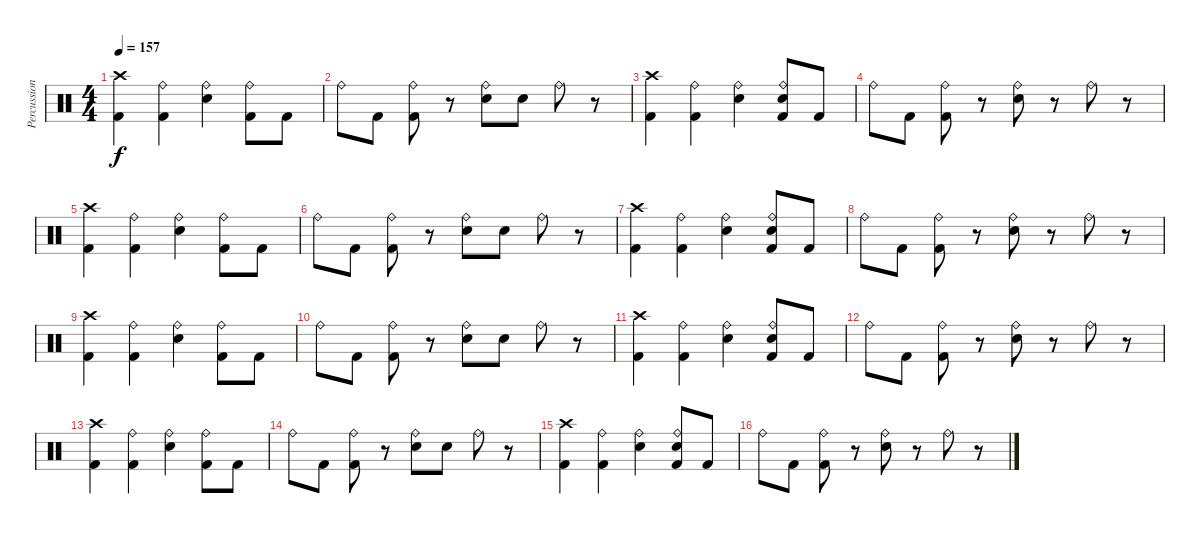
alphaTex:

\track ("Percussion" "Percussion") {instrument percussion}
\staff {score}
\articulation defaults
\ts (4 4)
\tempo 157
\clef neutral
\ks c
("Crash high (hit)" "Kick (hit) 2").4{dy f} ("Ride (bell)" "Kick (hit) 2").4 ("Ride (bell)" "Electric Snare (hit)").4 ("Ride (bell)" "Kick (hit) 2").8 "Kick (hit) 2".8 |
"Ride (bell)".8 "Kick (hit) 2".8 ("Ride (bell)" "Kick (hit) 2").8 r.8 ("Ride (bell)" "Electric Snare (hit)").8 "Electric Snare (hit)".8 "Ride (bell)".8 r.8 |
("Crash high (hit)" "Kick (hit) 2").4 ("Ride (bell)" "Kick (hit) 2").4 ("Ride (bell)" "Electric Snare (hit)").4 ("Ride (bell)" "Electric Snare (hit)" "Kick (hit) 2").8 "Kick (hit) 2".8 |
"Ride (bell)".8 "Kick (hit) 2".8 ("Ride (bell)" "Kick (hit) 2").8 r.8 ("Ride (bell)" "Electric Snare (hit)").8 r.8 "Ride (bell)".8 r.8 |
("Crash high (hit)" "Kick (hit) 2").4 ("Ride (bell)" "Kick (hit) 2").4 ("Ride (bell)" "Electric Snare (hit)").4 ("Ride (bell)" "Kick (hit) 2").8 "Kick (hit) 2".8 |
"Ride (bell)".8 "Kick (hit) 2".8 ("Ride (bell)" "Kick (hit) 2").8 r.8 ("Ride (bell)" "Electric Snare (hit)").8 "Electric Snare (hit)".8 "Ride (bell)".8 r.8 |
("Crash high (hit)" "Kick (hit) 2").4 ("Ride (bell)" "Kick (hit) 2").4 ("Ride (bell)" "Electric Snare (hit)").4 ("Ride (bell)" "Electric Snare (hit)" "Kick (hit) 2").8 "Kick (hit) 2".8 |
"Ride (bell)".8 "Kick (hit) 2".8 ("Ride (bell)" "Kick (hit) 2").8 r.8 ("Ride (bell)" "Electric Snare (hit)").8 r.8 "Ride (bell)".8 r.8 |
("Crash high (hit)" "Kick (hit) 2").4 ("Ride (bell)" "Kick (hit) 2").4 ("Ride (bell)" "Electric Snare (hit)").4 ("Ride (bell)" "Kick (hit) 2").8 "Kick (hit) 2".8 |
"Ride (bell)".8 "Kick (hit) 2".8 ("Ride (bell)" "Kick (hit) 2").8 r.8 ("Ride (bell)" "Electric Snare (hit)").8 "Electric Snare (hit)".8 "Ride (bell)".8 r.8 |
("Crash high (hit)" "Kick (hit) 2").4 ("Ride (bell)" "Kick (hit) 2").4 ("Ride (bell)" "Electric Snare (hit)").4 ("Ride (bell)" "Electric Snare (hit)" "Kick (hit) 2").8 "Kick (hit) 2".8 |
"Ride (bell)".8 "Kick (hit) 2".8 ("Ride (bell)" "Kick (hit) 2").8 r.8 ("Ride (bell)" "Electric Snare (hit)").8 r.8 "Ride (bell)".8 r.8 |
("Crash high (hit)" "Kick (hit) 2").4 ("Ride (bell)" "Kick (hit) 2").4 ("Ride (bell)" "Electric Snare (hit)").4 ("Ride (bell)" "Kick (hit) 2").8 "Kick (hit) 2".8 |
"Ride (bell)".8 "Kick (hit) 2".8 ("Ride (bell)" "Kick (hit) 2").8 r.8 ("Ride (bell)" "Electric Snare (hit)").8 "Electric Snare (hit)".8 "Ride (bell)".8 r.8 |
("Crash high (hit)" "Kick (hit) 2").4 ("Ride (bell)" "Kick (hit) 2").4 ("Ride (bell)" "Electric Snare (hit)").4 ("Ride (bell)" "Electric Snare (hit)" "Kick (hit) 2").8 "Kick (hit) 2".8 |
"Ride (bell)".8 "Kick (hit) 2".8 ("Ride (bell)" "Kick (hit) 2").8 r.8 ("Ride (bell)" "Electric Snare (hit)").8 r.8 "Ride (bell)".8 r.8
